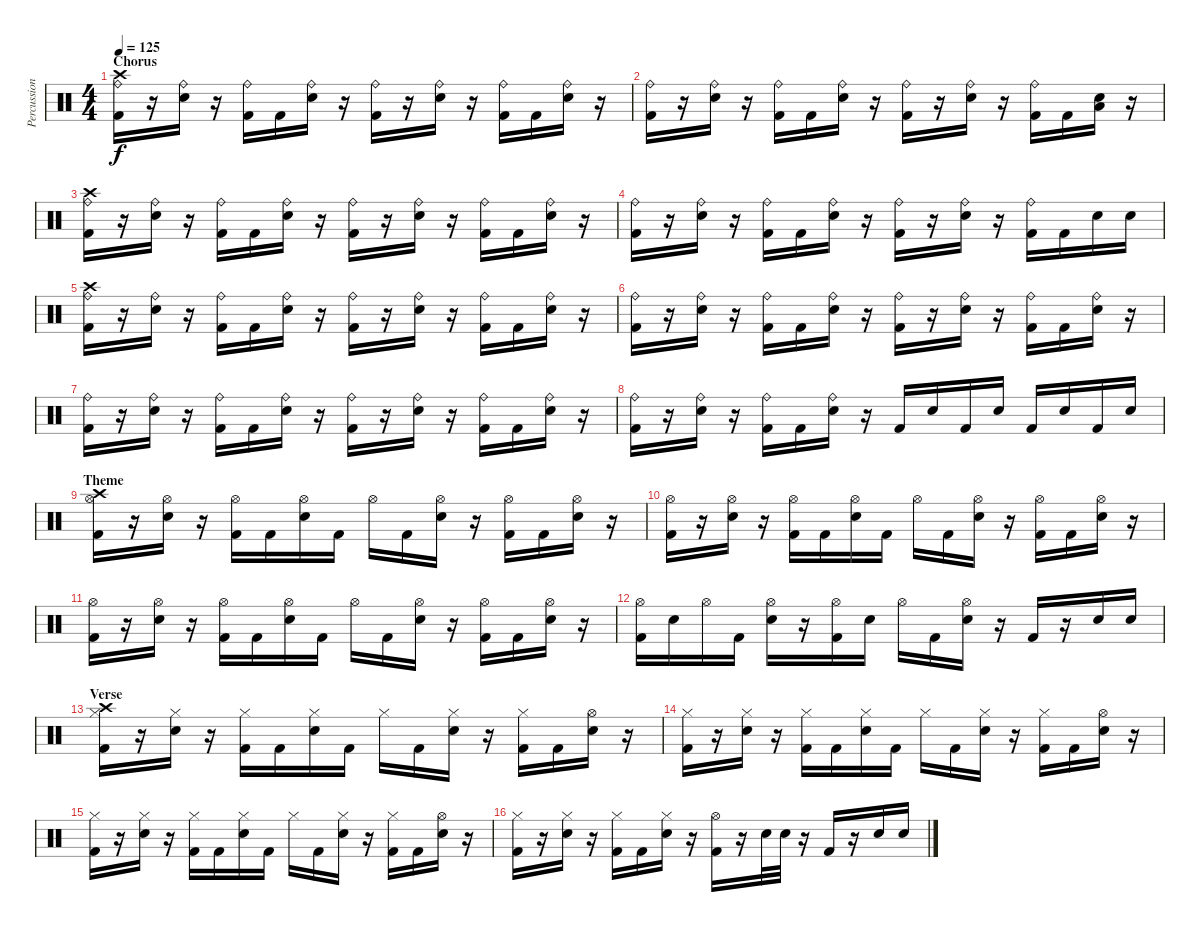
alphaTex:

\track ("Percussioni" "Percussion") {instrument percussion}
\staff {score}
\articulation defaults
\ts (4 4)
\section ("" "Chorus")
\tempo 125
\clef neutral
\ks c
("Crash high (hit)" "Ride (bell)" "Kick (hit) 2").16{dy f} r.16 ("Ride (bell)" "Snare (hit) 2").16 r.16 ("Ride (bell)" "Kick (hit) 2").16 "Kick (hit) 2".16 ("Ride (bell)" "Snare (hit) 2").16 r.16 ("Ride (bell)" "Kick (hit) 2").16 r.16 ("Ride (bell)" "Snare (hit) 2").16 r.16 ("Ride (bell)" "Kick (hit) 2").16 "Kick (hit) 2".16 ("Ride (bell)" "Snare (hit) 2").16 r.16 |
("Ride (bell)" "Kick (hit) 2").16 r.16 ("Ride (bell)" "Snare (hit) 2").16 r.16 ("Ride (bell)" "Kick (hit) 2").16 "Kick (hit) 2".16 ("Ride (bell)" "Snare (hit) 2").16 r.16 ("Ride (bell)" "Kick (hit) 2").16 r.16 ("Ride (bell)" "Snare (hit) 2").16 r.16 ("Ride (bell)" "Kick (hit) 2").16 "Kick (hit) 2".16 ("Low Tom (hit)" "Snare (hit) 2").16 r.16 |
("Crash high (hit)" "Ride (bell)" "Kick (hit) 2").16 r.16 ("Ride (bell)" "Snare (hit) 2").16 r.16 ("Ride (bell)" "Kick (hit) 2").16 "Kick (hit) 2".16 ("Ride (bell)" "Snare (hit) 2").16 r.16 ("Ride (bell)" "Kick (hit) 2").16 r.16 ("Ride (bell)" "Snare (hit) 2").16 r.16 ("Ride (bell)" "Kick (hit) 2").16 "Kick (hit) 2".16 ("Ride (bell)" "Snare (hit) 2").16 r.16 |
("Ride (bell)" "Kick (hit) 2").16 r.16 ("Ride (bell)" "Snare (hit) 2").16 r.16 ("Ride (bell)" "Kick (hit) 2").16 "Kick (hit) 2".16 ("Ride (bell)" "Snare (hit) 2").16 r.16 ("Ride (bell)" "Kick (hit) 2").16 r.16 ("Ride (bell)" "Snare (hit) 2").16 r.16 ("Ride (bell)" "Kick (hit) 2").16 "Kick (hit) 2".16 "Snare (hit) 2".16 "Snare (hit) 2".16 |
("Crash high (hit)" "Ride (bell)" "Kick (hit) 2").16 r.16 ("Ride (bell)" "Snare (hit) 2").16 r.16 ("Ride (bell)" "Kick (hit) 2").16 "Kick (hit) 2".16 ("Ride (bell)" "Snare (hit) 2").16 r.16 ("Ride (bell)" "Kick (hit) 2").16 r.16 ("Ride (bell)" "Snare (hit) 2").16 r.16 ("Ride (bell)" "Kick (hit) 2").16 "Kick (hit) 2".16 ("Ride (bell)" "Snare (hit) 2").16 r.16 |
("Ride (bell)" "Kick (hit) 2").16 r.16 ("Ride (bell)" "Snare (hit) 2").16 r.16 ("Ride (bell)" "Kick (hit) 2").16 "Kick (hit) 2".16 ("Ride (bell)" "Snare (hit) 2").16 r.16 ("Ride (bell)" "Kick (hit) 2").16 r.16 ("Ride (bell)" "Snare (hit) 2").16 r.16 ("Ride (bell)" "Kick (hit) 2").16 "Kick (hit) 2".16 ("Ride (bell)" "Snare (hit) 2").16 r.16 |
("Ride (bell)" "Kick (hit) 2").16 r.16 ("Ride (bell)" "Snare (hit) 2").16 r.16 ("Ride (bell)" "Kick (hit) 2").16 "Kick (hit) 2".16 ("Ride (bell)" "Snare (hit) 2").16 r.16 ("Ride (bell)" "Kick (hit) 2").16 r.16 ("Ride (bell)" "Snare (hit) 2").16 r.16 ("Ride (bell)" "Kick (hit) 2").16 "Kick (hit) 2".16 ("Ride (bell)" "Snare (hit) 2").16 r.16 |
("Ride (bell)" "Kick (hit) 2").16 r.16 ("Ride (bell)" "Snare (hit) 2").16 r.16 ("Ride (bell)" "Kick (hit) 2").16 "Kick (hit) 2".16 ("Ride (bell)" "Snare (hit) 2").16 r.16 "Kick (hit) 2".16 "Snare (hit) 2".16 "Kick (hit) 2".16 "Snare (hit) 2".16 "Kick (hit) 2".16 "Snare (hit) 2".16 "Kick (hit) 2".16 "Snare (hit) 2".16 |
\section ("" "Theme")
("Crash high (hit)" "Hi-Hat (open)" "Kick (hit) 2").16 r.16 ("Hi-Hat (open)" "Snare (hit) 2").16 r.16 ("Hi-Hat (open)" "Kick (hit) 2").16 "Kick (hit) 2".16 ("Hi-Hat (open)" "Snare (hit) 2").16 "Kick (hit) 2".16 "Hi-Hat (open)".16 "Kick (hit) 2".16 ("Hi-Hat (open)" "Snare (hit) 2").16 r.16 ("Hi-Hat (open)" "Kick (hit) 2").16 "Kick (hit) 2".16 ("Hi-Hat (open)" "Snare (hit) 2").16 r.16 |
("Hi-Hat (open)" "Kick (hit) 2").16 r.16 ("Hi-Hat (open)" "Snare (hit) 2").16 r.16 ("Hi-Hat (open)" "Kick (hit) 2").16 "Kick (hit) 2".16 ("Hi-Hat (open)" "Snare (hit) 2").16 "Kick (hit) 2".16 "Hi-Hat (open)".16 "Kick (hit) 2".16 ("Hi-Hat (open)" "Snare (hit) 2").16 r.16 ("Hi-Hat (open)" "Kick (hit) 2").16 "Kick (hit) 2".16 ("Hi-Hat (open)" "Snare (hit) 2").16 r.16 |
("Hi-Hat (open)" "Kick (hit) 2").16 r.16 ("Hi-Hat (open)" "Snare (hit) 2").16 r.16 ("Hi-Hat (open)" "Kick (hit) 2").16 "Kick (hit) 2".16 ("Hi-Hat (open)" "Snare (hit) 2").16 "Kick (hit) 2".16 "Hi-Hat (open)".16 "Kick (hit) 2".16 ("Hi-Hat (open)" "Snare (hit) 2").16 r.16 ("Hi-Hat (open)" "Kick (hit) 2").16 "Kick (hit) 2".16 ("Hi-Hat (open)" "Snare (hit) 2").16 r.16 |
("Hi-Hat (open)" "Kick (hit) 2").16 "Snare (hit) 2".16 "Hi-Hat (open)".16 "Kick (hit) 2".16 ("Hi-Hat (open)" "Snare (hit) 2").16 r.16 ("Hi-Hat (open)" "Kick (hit) 2").16 "Snare (hit) 2".16 "Hi-Hat (open)".16 "Kick (hit) 2".16 ("Hi-Hat (open)" "Snare (hit) 2").16 r.16 "Kick (hit) 2".16 r.16 "Snare (hit) 2".16 "Snare (hit) 2".16 |
\section ("" "Verse")
("Crash high (hit)" "Hi-Hat (closed)" "Kick (hit) 2").16 r.16 ("Hi-Hat (closed)" "Snare (hit) 2").16 r.16 ("Hi-Hat (closed)" "Kick (hit) 2").16 "Kick (hit) 2".16 ("Hi-Hat (closed)" "Snare (hit) 2").16 "Kick (hit) 2".16 "Hi-Hat (closed)".16 "Kick (hit) 2".16 ("Hi-Hat (closed)" "Snare (hit) 2").16 r.16 ("Hi-Hat (closed)" "Kick (hit) 2").16 "Kick (hit) 2".16 ("Hi-Hat (open)" "Snare (hit) 2").16 r.16 |
("Hi-Hat (closed)" "Kick (hit) 2").16 r.16 ("Hi-Hat (closed)" "Snare (hit) 2").16 r.16 ("Hi-Hat (closed)" "Kick (hit) 2").16 "Kick (hit) 2".16 ("Hi-Hat (closed)" "Snare (hit) 2").16 "Kick (hit) 2".16 "Hi-Hat (closed)".16 "Kick (hit) 2".16 ("Hi-Hat (closed)" "Snare (hit) 2").16 r.16 ("Hi-Hat (closed)" "Kick (hit) 2").16 "Kick (hit) 2".16 ("Hi-Hat (open)" "Snare (hit) 2").16 r.16 |
("Hi-Hat (closed)" "Kick (hit) 2").16 r.16 ("Hi-Hat (closed)" "Snare (hit) 2").16 r.16 ("Hi-Hat (closed)" "Kick (hit) 2").16 "Kick (hit) 2".16 ("Hi-Hat (closed)" "Snare (hit) 2").16 "Kick (hit) 2".16 "Hi-Hat (closed)".16 "Kick (hit) 2".16 ("Hi-Hat (closed)" "Snare (hit) 2").16 r.16 ("Hi-Hat (closed)" "Kick (hit) 2").16 "Kick (hit) 2".16 ("Hi-Hat (open)" "Snare (hit) 2").16 r.16 |
("Hi-Hat (closed)" "Kick (hit) 2").16 r.16 ("Hi-Hat (closed)" "Snare (hit) 2").16 r.16 ("Hi-Hat (closed)" "Kick (hit) 2").16 "Kick (hit) 2".16 ("Hi-Hat (closed)" "Snare (hit) 2").16 r.16 ("Hi-Hat (open)" "Kick (hit) 2").16 r.16 "Snare (hit) 2".32 "Snare (hit) 2".32 r.16 "Kick (hit) 2".16 r.16 "Snare (hit) 2".16 "Snare (hit) 2".16
